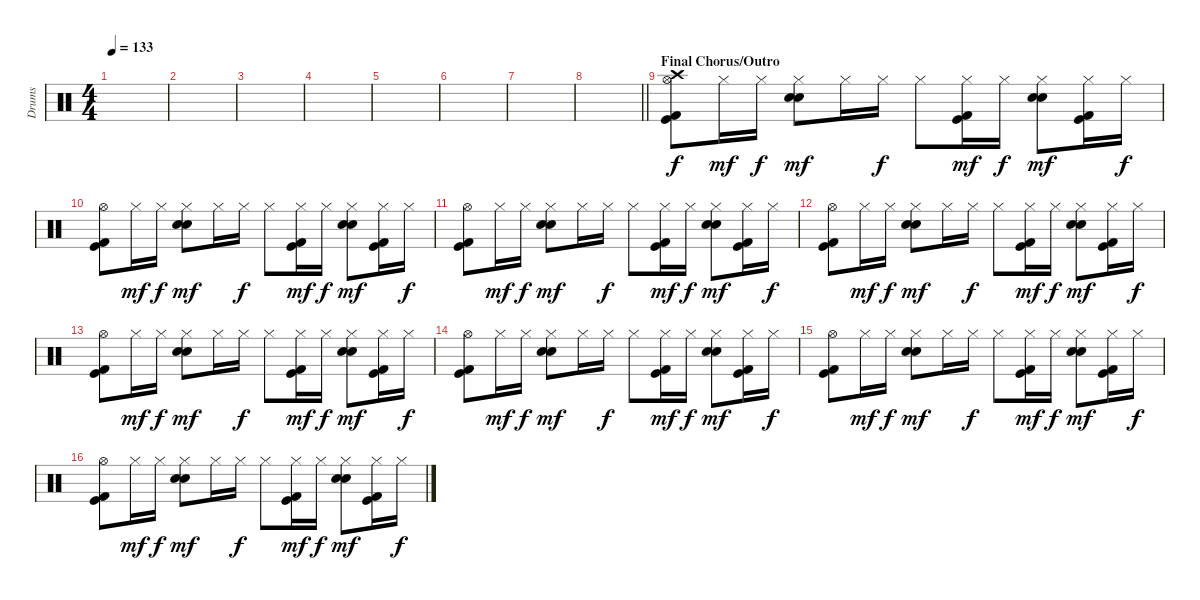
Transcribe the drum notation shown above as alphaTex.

\track ("Drums" "Drums") {instrument percussion}
\staff {score}
\articulation defaults
\ts (4 4)
\tempo 133
\clef neutral
\ks c
|
|
|
|
|
|
|
\barLineRight lightlight
|
\section ("" "Final Chorus/Outro")
("Crash high (hit)" "Hi-Hat (open)" "Kick (hit)" "Kick (hit) 2").8 "Hi-Hat (closed)".16{dy mf} "Hi-Hat (closed)".16{dy f} ("Hi-Hat (closed)" "Snare (hit) 2" "Hand Clap (hit)").8{dy mf} "Hi-Hat (closed)".16 "Hi-Hat (closed)".16{dy f} "Hi-Hat (closed)".8 ("Hi-Hat (closed)" "Kick (hit)" "Kick (hit) 2").16{dy mf} "Hi-Hat (closed)".16{dy f} ("Hi-Hat (closed)" "Snare (hit) 2" "Hand Clap (hit)").8{dy mf} ("Hi-Hat (closed)" "Kick (hit)" "Kick (hit) 2").16 "Hi-Hat (closed)".16{dy f} |
("Hi-Hat (open)" "Kick (hit)" "Kick (hit) 2").8 "Hi-Hat (closed)".16{dy mf} "Hi-Hat (closed)".16{dy f} ("Hi-Hat (closed)" "Snare (hit) 2" "Hand Clap (hit)").8{dy mf} "Hi-Hat (closed)".16 "Hi-Hat (closed)".16{dy f} "Hi-Hat (closed)".8 ("Hi-Hat (closed)" "Kick (hit)" "Kick (hit) 2").16{dy mf} "Hi-Hat (closed)".16{dy f} ("Hi-Hat (closed)" "Snare (hit) 2" "Hand Clap (hit)").8{dy mf} ("Hi-Hat (closed)" "Kick (hit)" "Kick (hit) 2").16 "Hi-Hat (closed)".16{dy f} |
("Hi-Hat (open)" "Kick (hit)" "Kick (hit) 2").8 "Hi-Hat (closed)".16{dy mf} "Hi-Hat (closed)".16{dy f} ("Hi-Hat (closed)" "Snare (hit) 2" "Hand Clap (hit)").8{dy mf} "Hi-Hat (closed)".16 "Hi-Hat (closed)".16{dy f} "Hi-Hat (closed)".8 ("Hi-Hat (closed)" "Kick (hit)" "Kick (hit) 2").16{dy mf} "Hi-Hat (closed)".16{dy f} ("Hi-Hat (closed)" "Snare (hit) 2" "Hand Clap (hit)").8{dy mf} ("Hi-Hat (closed)" "Kick (hit)" "Kick (hit) 2").16 "Hi-Hat (closed)".16{dy f} |
("Hi-Hat (open)" "Kick (hit)" "Kick (hit) 2").8 "Hi-Hat (closed)".16{dy mf} "Hi-Hat (closed)".16{dy f} ("Hi-Hat (closed)" "Snare (hit) 2" "Hand Clap (hit)").8{dy mf} "Hi-Hat (closed)".16 "Hi-Hat (closed)".16{dy f} "Hi-Hat (closed)".8 ("Hi-Hat (closed)" "Kick (hit)" "Kick (hit) 2").16{dy mf} "Hi-Hat (closed)".16{dy f} ("Hi-Hat (closed)" "Snare (hit) 2" "Hand Clap (hit)").8{dy mf} ("Hi-Hat (closed)" "Kick (hit)" "Kick (hit) 2").16 "Hi-Hat (closed)".16{dy f} |
("Hi-Hat (open)" "Kick (hit)" "Kick (hit) 2").8 "Hi-Hat (closed)".16{dy mf} "Hi-Hat (closed)".16{dy f} ("Hi-Hat (closed)" "Snare (hit) 2" "Hand Clap (hit)").8{dy mf} "Hi-Hat (closed)".16 "Hi-Hat (closed)".16{dy f} "Hi-Hat (closed)".8 ("Hi-Hat (closed)" "Kick (hit)" "Kick (hit) 2").16{dy mf} "Hi-Hat (closed)".16{dy f} ("Hi-Hat (closed)" "Snare (hit) 2" "Hand Clap (hit)").8{dy mf} ("Hi-Hat (closed)" "Kick (hit)" "Kick (hit) 2").16 "Hi-Hat (closed)".16{dy f} |
("Hi-Hat (open)" "Kick (hit)" "Kick (hit) 2").8 "Hi-Hat (closed)".16{dy mf} "Hi-Hat (closed)".16{dy f} ("Hi-Hat (closed)" "Snare (hit) 2" "Hand Clap (hit)").8{dy mf} "Hi-Hat (closed)".16 "Hi-Hat (closed)".16{dy f} "Hi-Hat (closed)".8 ("Hi-Hat (closed)" "Kick (hit)" "Kick (hit) 2").16{dy mf} "Hi-Hat (closed)".16{dy f} ("Hi-Hat (closed)" "Snare (hit) 2" "Hand Clap (hit)").8{dy mf} ("Hi-Hat (closed)" "Kick (hit)" "Kick (hit) 2").16 "Hi-Hat (closed)".16{dy f} |
("Hi-Hat (open)" "Kick (hit)" "Kick (hit) 2").8 "Hi-Hat (closed)".16{dy mf} "Hi-Hat (closed)".16{dy f} ("Hi-Hat (closed)" "Snare (hit) 2" "Hand Clap (hit)").8{dy mf} "Hi-Hat (closed)".16 "Hi-Hat (closed)".16{dy f} "Hi-Hat (closed)".8 ("Hi-Hat (closed)" "Kick (hit)" "Kick (hit) 2").16{dy mf} "Hi-Hat (closed)".16{dy f} ("Hi-Hat (closed)" "Snare (hit) 2" "Hand Clap (hit)").8{dy mf} ("Hi-Hat (closed)" "Kick (hit)" "Kick (hit) 2").16 "Hi-Hat (closed)".16{dy f} |
("Hi-Hat (open)" "Kick (hit)" "Kick (hit) 2").8 "Hi-Hat (closed)".16{dy mf} "Hi-Hat (closed)".16{dy f} ("Hi-Hat (closed)" "Snare (hit) 2" "Hand Clap (hit)").8{dy mf} "Hi-Hat (closed)".16 "Hi-Hat (closed)".16{dy f} "Hi-Hat (closed)".8 ("Hi-Hat (closed)" "Kick (hit)" "Kick (hit) 2").16{dy mf} "Hi-Hat (closed)".16{dy f} ("Hi-Hat (closed)" "Snare (hit) 2" "Hand Clap (hit)").8{dy mf} ("Hi-Hat (closed)" "Kick (hit)" "Kick (hit) 2").16 "Hi-Hat (closed)".16{dy f}
